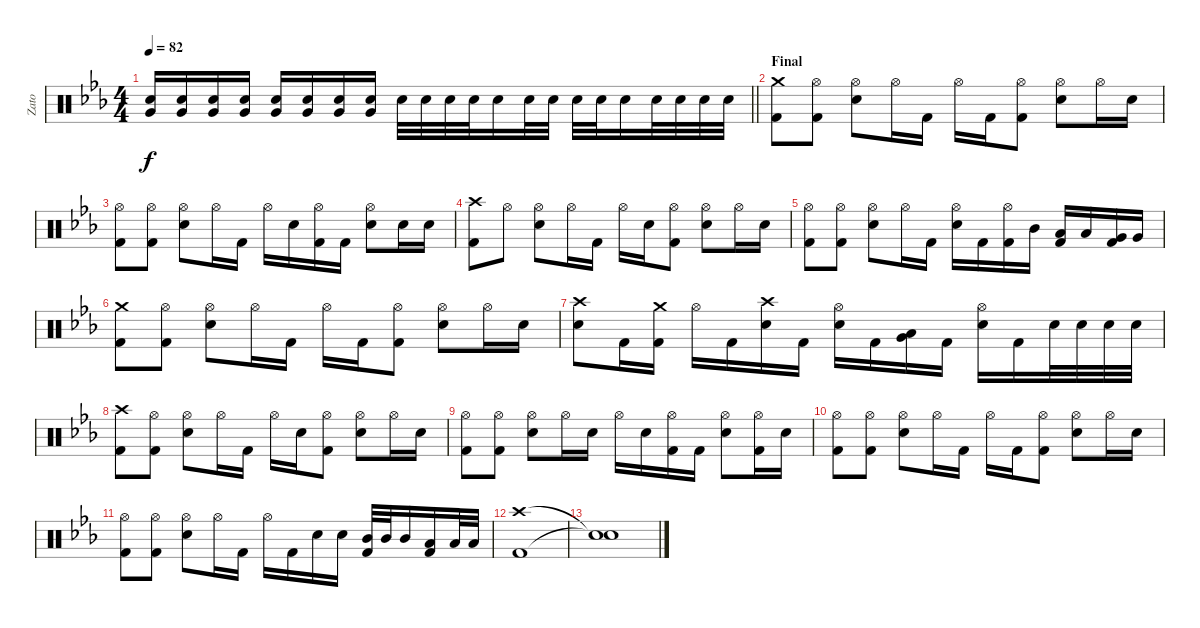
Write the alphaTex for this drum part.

\track ("Zato" "Zato") {instrument percussion}
\staff {score}
\articulation defaults
\ts (4 4)
\tempo 82
\clef neutral
\barLineRight lightlight
\ks cminor
("Very Low Tom (hit)" "Electric Snare (hit)").16{dy f} ("Very Low Tom (hit)" "Electric Snare (hit)").16 ("Very Low Tom (hit)" "Electric Snare (hit)").16 ("Very Low Tom (hit)" "Electric Snare (hit)").16 ("Very Low Tom (hit)" "Electric Snare (hit)").16 ("Very Low Tom (hit)" "Electric Snare (hit)").16 ("Very Low Tom (hit)" "Electric Snare (hit)").16 ("Very Low Tom (hit)" "Electric Snare (hit)").16 "Electric Snare (hit)".32 "Electric Snare (hit)".32 "Electric Snare (hit)".32 "Electric Snare (hit)".32 "Electric Snare (hit)".16 "Electric Snare (hit)".32 "Electric Snare (hit)".32 "Electric Snare (hit)".32 "Electric Snare (hit)".32 "Electric Snare (hit)".16 "Electric Snare (hit)".32 "Electric Snare (hit)".32 "Electric Snare (hit)".32 "Electric Snare (hit)".32 |
\section ("" "Final")
("Crash medium (hit)" "Kick (hit) 2").8 ("Hi-Hat (open)" "Kick (hit) 2").8 ("Hi-Hat (open)" "Electric Snare (hit)").8 "Hi-Hat (open)".16 "Kick (hit) 2".16 "Hi-Hat (open)".16 "Kick (hit) 2".16 ("Hi-Hat (open)" "Kick (hit) 2").8 ("Hi-Hat (open)" "Electric Snare (hit)").8 "Hi-Hat (open)".16 "Electric Snare (hit)".16 |
("Hi-Hat (open)" "Kick (hit) 2").8 ("Hi-Hat (open)" "Kick (hit) 2").8 ("Hi-Hat (open)" "Electric Snare (hit)").8 "Hi-Hat (open)".16 "Kick (hit) 2".16 "Hi-Hat (open)".16 "Electric Snare (hit)".16 ("Hi-Hat (open)" "Kick (hit) 2").16 "Kick (hit) 2".16 ("Hi-Hat (open)" "Electric Snare (hit)").8 "Electric Snare (hit)".16 "Electric Snare (hit)".16 |
("Crash high (hit)" "Kick (hit) 2").8 "Hi-Hat (open)".8 ("Hi-Hat (open)" "Electric Snare (hit)").8 "Hi-Hat (open)".16 "Kick (hit) 2".16 "Hi-Hat (open)".16 "Electric Snare (hit)".16 ("Hi-Hat (open)" "Kick (hit) 2").8 ("Hi-Hat (open)" "Electric Snare (hit)").8 "Hi-Hat (open)".16 "Electric Snare (hit)".16 |
("Hi-Hat (open)" "Kick (hit) 2").8 ("Hi-Hat (open)" "Kick (hit) 2").8 ("Hi-Hat (open)" "Electric Snare (hit)").8 "Hi-Hat (open)".16 "Kick (hit) 2".16 ("Hi-Hat (open)" "Electric Snare (hit)").16 "Kick (hit) 2".16 ("Hi-Hat (open)" "Kick (hit) 2").16 "Mid Tom (hit)".16 ("Low Tom (hit)" "Kick (hit) 2").16 "Low Tom (hit)".16 ("Very Low Tom (hit)" "Kick (hit) 2").16 "Very Low Tom (hit)".16 |
("Crash medium (hit)" "Kick (hit) 2").8 ("Hi-Hat (open)" "Kick (hit) 2").8 ("Hi-Hat (open)" "Electric Snare (hit)").8 "Hi-Hat (open)".16 "Kick (hit) 2".16 "Hi-Hat (open)".16 "Kick (hit) 2".16 ("Hi-Hat (open)" "Kick (hit) 2").8 ("Hi-Hat (open)" "Electric Snare (hit)").8 "Hi-Hat (open)".16 "Electric Snare (hit)".16 |
("Crash high (hit)" "Electric Snare (hit)").8 "Kick (hit) 2".16 ("Crash medium (hit)" "Kick (hit) 2").16 "Hi-Hat (open)".16 "Kick (hit) 2".16 ("Crash high (hit)" "Electric Snare (hit)").16 "Kick (hit) 2".16 ("Hi-Hat (open)" "Electric Snare (hit)").16 "Kick (hit) 2".16 ("Low Tom (hit)" "Very Low Tom (hit)").16 "Kick (hit) 2".16 ("Hi-Hat (open)" "Electric Snare (hit)").16 "Kick (hit) 2".16 "Electric Snare (hit)".32 "Electric Snare (hit)".32 "Electric Snare (hit)".32 "Electric Snare (hit)".32 |
("Crash high (hit)" "Kick (hit) 2").8 ("Hi-Hat (open)" "Kick (hit) 2").8 ("Hi-Hat (open)" "Electric Snare (hit)").8 "Hi-Hat (open)".16 "Kick (hit) 2".16 "Hi-Hat (open)".16 "Electric Snare (hit)".16 ("Hi-Hat (open)" "Kick (hit) 2").8 ("Hi-Hat (open)" "Electric Snare (hit)").8 "Hi-Hat (open)".16 "Electric Snare (hit)".16 |
("Hi-Hat (open)" "Kick (hit) 2").8 ("Hi-Hat (open)" "Kick (hit) 2").8 ("Hi-Hat (open)" "Electric Snare (hit)").8 "Hi-Hat (open)".16 "Electric Snare (hit)".16 "Hi-Hat (open)".16 "Electric Snare (hit)".16 ("Hi-Hat (open)" "Kick (hit) 2").16 "Kick (hit) 2".16 ("Hi-Hat (open)" "Electric Snare (hit)").8 ("Hi-Hat (open)" "Kick (hit) 2").16 "Electric Snare (hit)".16 |
("Hi-Hat (open)" "Kick (hit) 2").8 ("Hi-Hat (open)" "Kick (hit) 2").8 ("Hi-Hat (open)" "Electric Snare (hit)").8 "Hi-Hat (open)".16 "Kick (hit) 2".16 "Hi-Hat (open)".16 "Kick (hit) 2".16 ("Hi-Hat (open)" "Kick (hit) 2").8 ("Hi-Hat (open)" "Electric Snare (hit)").8 "Hi-Hat (open)".16 "Electric Snare (hit)".16 |
("Hi-Hat (open)" "Kick (hit) 2").8 ("Hi-Hat (open)" "Kick (hit) 2").8 ("Hi-Hat (open)" "Electric Snare (hit)").8 "Hi-Hat (open)".16 "Kick (hit) 2".16 "Hi-Hat (open)".16 "Kick (hit) 2".16 "Electric Snare (hit)".16 "Electric Snare (hit)".16 ("Mid Tom (hit)" "Kick (hit) 2").32 "Mid Tom (hit)".32 "Mid Tom (hit)".16 ("Low Tom (hit)" "Kick (hit) 2").16 "Low Tom (hit)".32 "Low Tom (hit)".32 |
("Crash high (hit)" "Kick (hit) 2").1 |
("Snare (hit)"{t} "Snare (hit)"{t}).1
